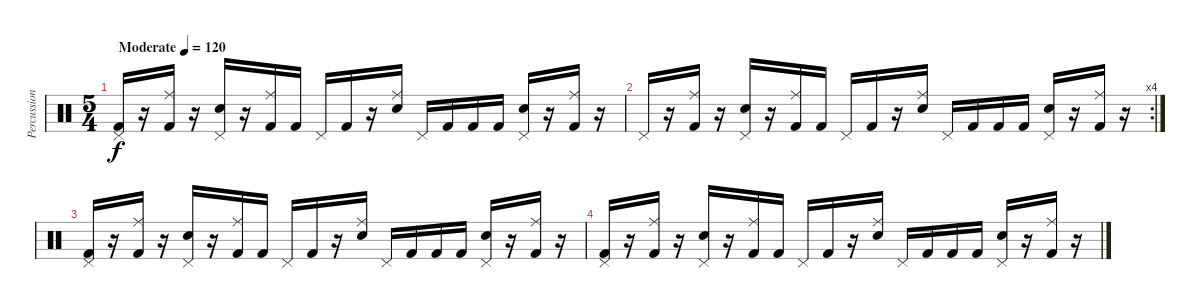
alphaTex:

\track ("Percussion" "Percussion") {instrument percussion}
\staff {score}
\articulation defaults
\ts (5 4)
\tempo (120 "Moderate")
\clef neutral
\ks c
("Pedal Hi-Hat (hit)" "Kick (hit) 2").16{dy f} r.16 ("Ride (middle)" "Kick (hit) 2").16 r.16 ("Electric Snare (hit)" "Pedal Hi-Hat (hit)").16 r.16 ("Ride (middle)" "Kick (hit) 2").16 "Kick (hit) 2".16 "Pedal Hi-Hat (hit)".16 "Kick (hit) 2".16 r.16 ("Ride (middle)" "Electric Snare (hit)").16 "Pedal Hi-Hat (hit)".16 "Kick (hit) 2".16 "Kick (hit) 2".16 "Kick (hit) 2".16 ("Electric Snare (hit)" "Pedal Hi-Hat (hit)").16 r.16 ("Ride (middle)" "Kick (hit) 2").16 r.16 |
\rc 4 "Pedal Hi-Hat (hit)".16
r.16 ("Ride (middle)" "Kick (hit) 2").16 r.16 ("Electric Snare (hit)" "Pedal Hi-Hat (hit)").16 r.16 ("Ride (middle)" "Kick (hit) 2").16 "Kick (hit) 2".16 "Pedal Hi-Hat (hit)".16 "Kick (hit) 2".16 r.16 ("Ride (middle)" "Electric Snare (hit)").16 "Pedal Hi-Hat (hit)".16 "Kick (hit) 2".16 "Kick (hit) 2".16 "Kick (hit) 2".16 ("Electric Snare (hit)" "Pedal Hi-Hat (hit)").16 r.16 ("Ride (middle)" "Kick (hit) 2").16 r.16 |
("Pedal Hi-Hat (hit)" "Kick (hit) 2").16 r.16 ("Ride (middle)" "Kick (hit) 2").16 r.16 ("Electric Snare (hit)" "Pedal Hi-Hat (hit)").16 r.16 ("Ride (middle)" "Kick (hit) 2").16 "Kick (hit) 2".16 "Pedal Hi-Hat (hit)".16 "Kick (hit) 2".16 r.16 ("Ride (middle)" "Electric Snare (hit)").16 "Pedal Hi-Hat (hit)".16 "Kick (hit) 2".16 "Kick (hit) 2".16 "Kick (hit) 2".16 ("Electric Snare (hit)" "Pedal Hi-Hat (hit)").16 r.16 ("Ride (middle)" "Kick (hit) 2").16 r.16 |
("Pedal Hi-Hat (hit)" "Kick (hit) 2").16 r.16 ("Ride (middle)" "Kick (hit) 2").16 r.16 ("Electric Snare (hit)" "Pedal Hi-Hat (hit)").16 r.16 ("Ride (middle)" "Kick (hit) 2").16 "Kick (hit) 2".16 "Pedal Hi-Hat (hit)".16 "Kick (hit) 2".16 r.16 ("Ride (middle)" "Electric Snare (hit)").16 "Pedal Hi-Hat (hit)".16 "Kick (hit) 2".16 "Kick (hit) 2".16 "Kick (hit) 2".16 ("Electric Snare (hit)" "Pedal Hi-Hat (hit)").16 r.16 ("Ride (middle)" "Kick (hit) 2").16 r.16
